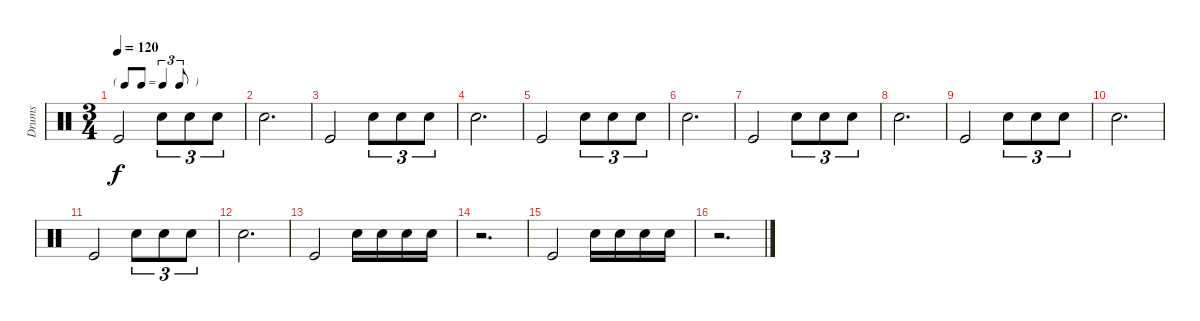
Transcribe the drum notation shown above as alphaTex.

\track ("Drums" "Drums") {instrument percussion}
\staff {score}
\articulation defaults
\ts (3 4)
\tf triplet8th
\tempo 120
\clef neutral
\ks c "Kick (hit)".2{dy f} "Snare (hit) 2".8{tu (3 2)} "Snare (hit) 2".8{tu (3 2)} "Snare (hit) 2".8{tu (3 2)}
|
"Snare (hit) 2".2{d} |
"Kick (hit)".2 "Snare (hit) 2".8{tu (3 2)} "Snare (hit) 2".8{tu (3 2)} "Snare (hit) 2".8{tu (3 2)} |
"Snare (hit) 2".2{d} |
"Kick (hit)".2 "Snare (hit) 2".8{tu (3 2)} "Snare (hit) 2".8{tu (3 2)} "Snare (hit) 2".8{tu (3 2)} |
"Snare (hit) 2".2{d} |
"Kick (hit)".2 "Snare (hit) 2".8{tu (3 2)} "Snare (hit) 2".8{tu (3 2)} "Snare (hit) 2".8{tu (3 2)} |
"Snare (hit) 2".2{d} |
"Kick (hit)".2 "Snare (hit) 2".8{tu (3 2)} "Snare (hit) 2".8{tu (3 2)} "Snare (hit) 2".8{tu (3 2)} |
"Snare (hit) 2".2{d} |
"Kick (hit)".2 "Snare (hit) 2".8{tu (3 2)} "Snare (hit) 2".8{tu (3 2)} "Snare (hit) 2".8{tu (3 2)} |
"Snare (hit) 2".2{d} |
"Kick (hit)".2 "Snare (hit) 2".16 "Snare (hit) 2".16 "Snare (hit) 2".16 "Snare (hit) 2".16 |
r.2{d} |
"Kick (hit)".2 "Snare (hit) 2".16 "Snare (hit) 2".16 "Snare (hit) 2".16 "Snare (hit) 2".16 |
r.2{d}
